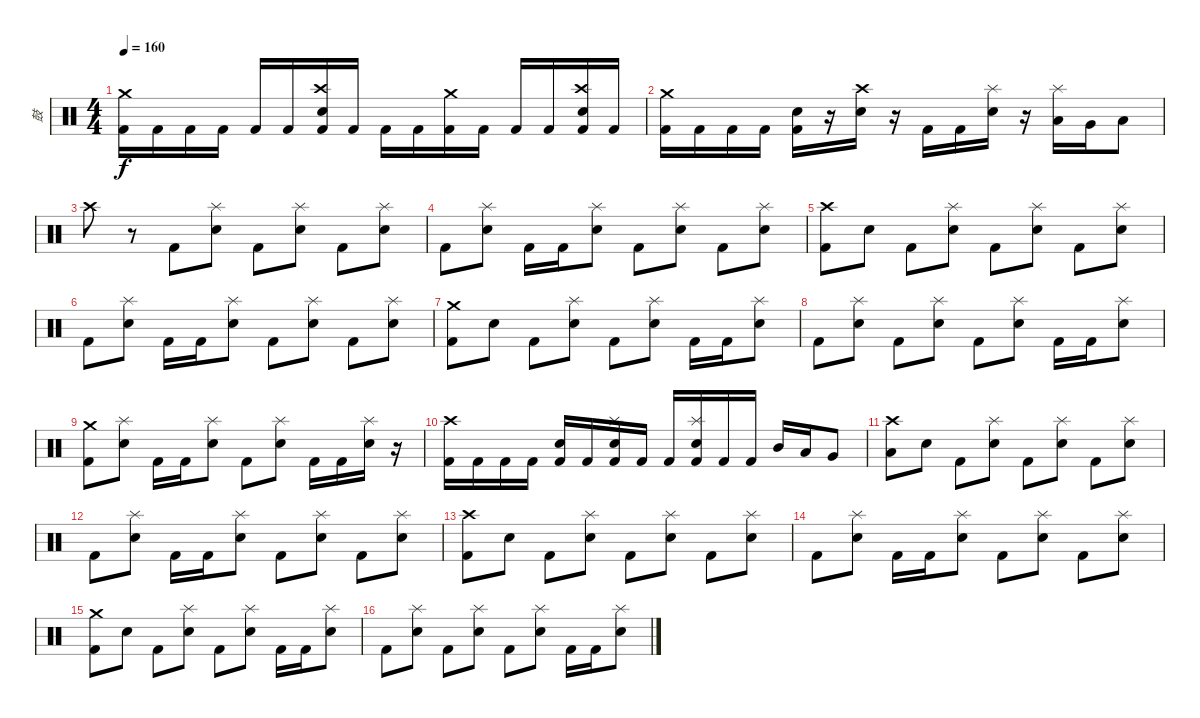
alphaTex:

\track ("鼓" "鼓") {instrument percussion}
\staff {score}
\articulation defaults
\ts (4 4)
\tempo 160
\clef neutral
\ks c
("Crash medium (hit)" "Kick (hit) 2").16{dy f} "Kick (hit) 2".16 "Kick (hit) 2".16 "Kick (hit) 2".16 "Kick (hit) 2".16 "Kick (hit) 2".16 ("Crash high (hit)" "Snare (hit) 2" "Kick (hit) 2").16 "Kick (hit) 2".16 "Kick (hit) 2".16 "Kick (hit) 2".16 ("Crash medium (hit)" "Kick (hit) 2").16 "Kick (hit) 2".16 "Kick (hit) 2".16 "Kick (hit) 2".16 ("Crash high (hit)" "Snare (hit) 2" "Kick (hit) 2").16 "Kick (hit) 2".16 |
("Crash medium (hit)" "Kick (hit) 2").16 "Kick (hit) 2".16 "Kick (hit) 2".16 "Kick (hit) 2".16 ("Snare (hit) 2" "Kick (hit) 2").16 r.16 ("Crash high (hit)" "Snare (hit) 2").16 r.16 "Kick (hit) 2".16 "Kick (hit) 2".16 ("Splash (hit)" "Snare (hit) 2").16 r.16 ("Splash (hit)" "Low Tom (hit)").16 "Very Low Tom (hit)".16 "Low Floor Tom (hit)".8 |
"Crash high (hit)".8 r.8 "Kick (hit) 2".8 ("Splash (hit)" "Electric Snare (hit)").8 "Kick (hit) 2".8 ("Splash (hit)" "Electric Snare (hit)").8 "Kick (hit) 2".8 ("Splash (hit)" "Electric Snare (hit)").8 |
"Kick (hit) 2".8 ("Splash (hit)" "Electric Snare (hit)").8 "Kick (hit) 2".16 "Kick (hit) 2".16 ("Splash (hit)" "Electric Snare (hit)").8 "Kick (hit) 2".8 ("Splash (hit)" "Electric Snare (hit)").8 "Kick (hit) 2".8 ("Splash (hit)" "Electric Snare (hit)").8 |
("Crash high (hit)" "Kick (hit) 2").8 "Electric Snare (hit)".8 "Kick (hit) 2".8 ("Splash (hit)" "Electric Snare (hit)").8 "Kick (hit) 2".8 ("Splash (hit)" "Electric Snare (hit)").8 "Kick (hit) 2".8 ("Splash (hit)" "Electric Snare (hit)").8 |
"Kick (hit) 2".8 ("Splash (hit)" "Electric Snare (hit)").8 "Kick (hit) 2".16 "Kick (hit) 2".16 ("Splash (hit)" "Electric Snare (hit)").8 "Kick (hit) 2".8 ("Splash (hit)" "Electric Snare (hit)").8 "Kick (hit) 2".8 ("Splash (hit)" "Electric Snare (hit)").8 |
("Crash medium (hit)" "Kick (hit) 2").8 "Electric Snare (hit)".8 "Kick (hit) 2".8 ("Splash (hit)" "Electric Snare (hit)").8 "Kick (hit) 2".8 ("Splash (hit)" "Electric Snare (hit)").8 "Kick (hit) 2".16 "Kick (hit) 2".16 ("Splash (hit)" "Electric Snare (hit)").8 |
"Kick (hit) 2".8 ("Splash (hit)" "Electric Snare (hit)").8 "Kick (hit) 2".8 ("Splash (hit)" "Electric Snare (hit)").8 "Kick (hit) 2".8 ("Splash (hit)" "Electric Snare (hit)").8 "Kick (hit) 2".16 "Kick (hit) 2".16 ("Splash (hit)" "Electric Snare (hit)").8 |
("Crash medium (hit)" "Kick (hit) 2").8 ("Splash (hit)" "Electric Snare (hit)").8 "Kick (hit) 2".16 "Kick (hit) 2".16 ("Splash (hit)" "Electric Snare (hit)").8 "Kick (hit) 2".8 ("Splash (hit)" "Electric Snare (hit)").8 "Kick (hit) 2".16 "Kick (hit) 2".16 ("Splash (hit)" "Electric Snare (hit)").16 r.16 |
("Crash high (hit)" "Kick (hit) 2").16 "Kick (hit) 2".16 "Kick (hit) 2".16 "Kick (hit) 2".16 ("Electric Snare (hit)" "Kick (hit) 2").16 "Kick (hit) 2".16 ("Splash (hit)" "Electric Snare (hit)" "Kick (hit) 2").16 "Kick (hit) 2".16 "Kick (hit) 2".16 ("Splash (hit)" "Electric Snare (hit)" "Kick (hit) 2").16 "Kick (hit) 2".16 "Kick (hit) 2".16 "Mid Tom (hit)".16 "Low Tom (hit)".16 "Very Low Tom (hit)".8 |
("Crash high (hit)" "Low Floor Tom (hit)").8 "Electric Snare (hit)".8 "Kick (hit) 2".8 ("Splash (hit)" "Electric Snare (hit)").8 "Kick (hit) 2".8 ("Splash (hit)" "Electric Snare (hit)").8 "Kick (hit) 2".8 ("Splash (hit)" "Electric Snare (hit)").8 |
"Kick (hit) 2".8 ("Splash (hit)" "Electric Snare (hit)").8 "Kick (hit) 2".16 "Kick (hit) 2".16 ("Splash (hit)" "Electric Snare (hit)").8 "Kick (hit) 2".8 ("Splash (hit)" "Electric Snare (hit)").8 "Kick (hit) 2".8 ("Splash (hit)" "Electric Snare (hit)").8 |
("Crash high (hit)" "Kick (hit) 2").8 "Electric Snare (hit)".8 "Kick (hit) 2".8 ("Splash (hit)" "Electric Snare (hit)").8 "Kick (hit) 2".8 ("Splash (hit)" "Electric Snare (hit)").8 "Kick (hit) 2".8 ("Splash (hit)" "Electric Snare (hit)").8 |
"Kick (hit) 2".8 ("Splash (hit)" "Electric Snare (hit)").8 "Kick (hit) 2".16 "Kick (hit) 2".16 ("Splash (hit)" "Electric Snare (hit)").8 "Kick (hit) 2".8 ("Splash (hit)" "Electric Snare (hit)").8 "Kick (hit) 2".8 ("Splash (hit)" "Electric Snare (hit)").8 |
("Crash medium (hit)" "Kick (hit) 2").8 "Electric Snare (hit)".8 "Kick (hit) 2".8 ("Splash (hit)" "Electric Snare (hit)").8 "Kick (hit) 2".8 ("Splash (hit)" "Electric Snare (hit)").8 "Kick (hit) 2".16 "Kick (hit) 2".16 ("Splash (hit)" "Electric Snare (hit)").8 |
"Kick (hit) 2".8 ("Splash (hit)" "Electric Snare (hit)").8 "Kick (hit) 2".8 ("Splash (hit)" "Electric Snare (hit)").8 "Kick (hit) 2".8 ("Splash (hit)" "Electric Snare (hit)").8 "Kick (hit) 2".16 "Kick (hit) 2".16 ("Splash (hit)" "Electric Snare (hit)").8
